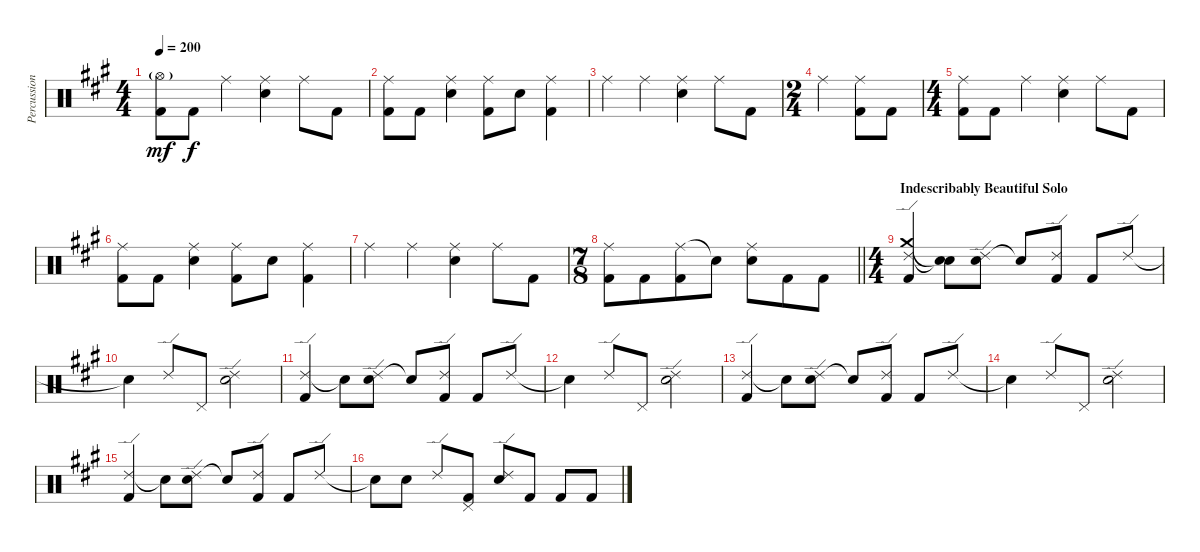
\track ("Percussion" "Percussion") {instrument percussion}
\staff {score}
\articulation defaults
\ts (4 4)
\tempo 200
\clef neutral
\ks f#minor
("Hi-Hat (open)"{g} "Kick (hit) 2").8{dy mf} "Kick (hit) 2".8{dy f} "Ride (middle)".4 ("Ride (middle)" "Electric Snare (hit)").4 "Ride (middle)".8 "Kick (hit) 2".8 |
("Ride (middle)" "Kick (hit) 2").8 "Kick (hit) 2".8 ("Ride (middle)" "Electric Snare (hit)").4 ("Ride (middle)" "Kick (hit) 2").8 "Electric Snare (hit)".8 ("Ride (middle)" "Kick (hit) 2").4 |
"Ride (middle)".4 "Ride (middle)".4 ("Ride (middle)" "Electric Snare (hit)").4 "Ride (middle)".8 "Kick (hit) 2".8 |
\ts (2 4)
"Ride (middle)".4 ("Ride (middle)" "Kick (hit) 2").8 "Kick (hit) 2".8 |
\ts (4 4)
("Ride (middle)" "Kick (hit) 2").8 "Kick (hit) 2".8 "Ride (middle)".4 ("Ride (middle)" "Electric Snare (hit)").4 "Ride (middle)".8 "Kick (hit) 2".8 |
("Ride (middle)" "Kick (hit) 2").8 "Kick (hit) 2".8 ("Ride (middle)" "Electric Snare (hit)").4 ("Ride (middle)" "Kick (hit) 2").8 "Electric Snare (hit)".8 ("Ride (middle)" "Kick (hit) 2").4 |
"Ride (middle)".4 "Ride (middle)".4 ("Ride (middle)" "Electric Snare (hit)").4{beam merge} "Ride (middle)".8 "Kick (hit) 2".8 |
\ts (7 8)
\barLineRight lightlight
("Ride (middle)" "Kick (hit) 2").8{beam merge} "Kick (hit) 2".8 ("Ride (middle)" "Kick (hit) 2").8 "Snare (hit)"{t}.8 ("Ride (middle)" "Electric Snare (hit)").8 "Kick (hit) 2".8 "Kick (hit) 2".8 |
\ts (4 4)
\section ("" "Indescribably Beautiful Solo")
("Crash medium (hit)" "Ride (edge) 2" "Kick (hit) 2").4 ("Snare (hit)"{t} "Snare (hit)"{t}).8 ("Ride (edge) 2" "Electric Snare (hit)").8 "Snare (hit)"{t}.8 ("Ride (edge) 2" "Kick (hit) 2").8 "Kick (hit) 2".8 "Ride (edge) 2".8 |
"Snare (hit)"{t}.4 "Ride (edge) 2".8 "Pedal Hi-Hat (hit)".8 ("Ride (edge) 2" "Electric Snare (hit)").2 |
("Ride (edge) 2" "Kick (hit) 2").4 "Snare (hit)"{t}.8 ("Ride (edge) 2" "Electric Snare (hit)").8 "Snare (hit)"{t}.8 ("Ride (edge) 2" "Kick (hit) 2").8 "Kick (hit) 2".8 "Ride (edge) 2".8 |
"Snare (hit)"{t}.4 "Ride (edge) 2".8 "Pedal Hi-Hat (hit)".8 ("Ride (edge) 2" "Electric Snare (hit)").2 |
("Ride (edge) 2" "Kick (hit) 2").4 "Snare (hit)"{t}.8 ("Ride (edge) 2" "Electric Snare (hit)").8 "Snare (hit)"{t}.8 ("Ride (edge) 2" "Kick (hit) 2").8 "Kick (hit) 2".8 "Ride (edge) 2".8 |
"Snare (hit)"{t}.4 "Ride (edge) 2".8 "Pedal Hi-Hat (hit)".8 ("Ride (edge) 2" "Electric Snare (hit)").2 |
("Ride (edge) 2" "Kick (hit) 2").4 "Snare (hit)"{t}.8 ("Ride (edge) 2" "Electric Snare (hit)").8 "Snare (hit)"{t}.8 ("Ride (edge) 2" "Kick (hit) 2").8 "Kick (hit) 2".8 "Ride (edge) 2".8 |
"Snare (hit)"{t}.8 "Electric Snare (hit)".8 "Ride (edge) 2".8 ("Pedal Hi-Hat (hit)" "Kick (hit) 2").8 ("Ride (edge) 2" "Electric Snare (hit)").8 "Kick (hit) 2".8 "Kick (hit) 2".8 "Kick (hit) 2".8
